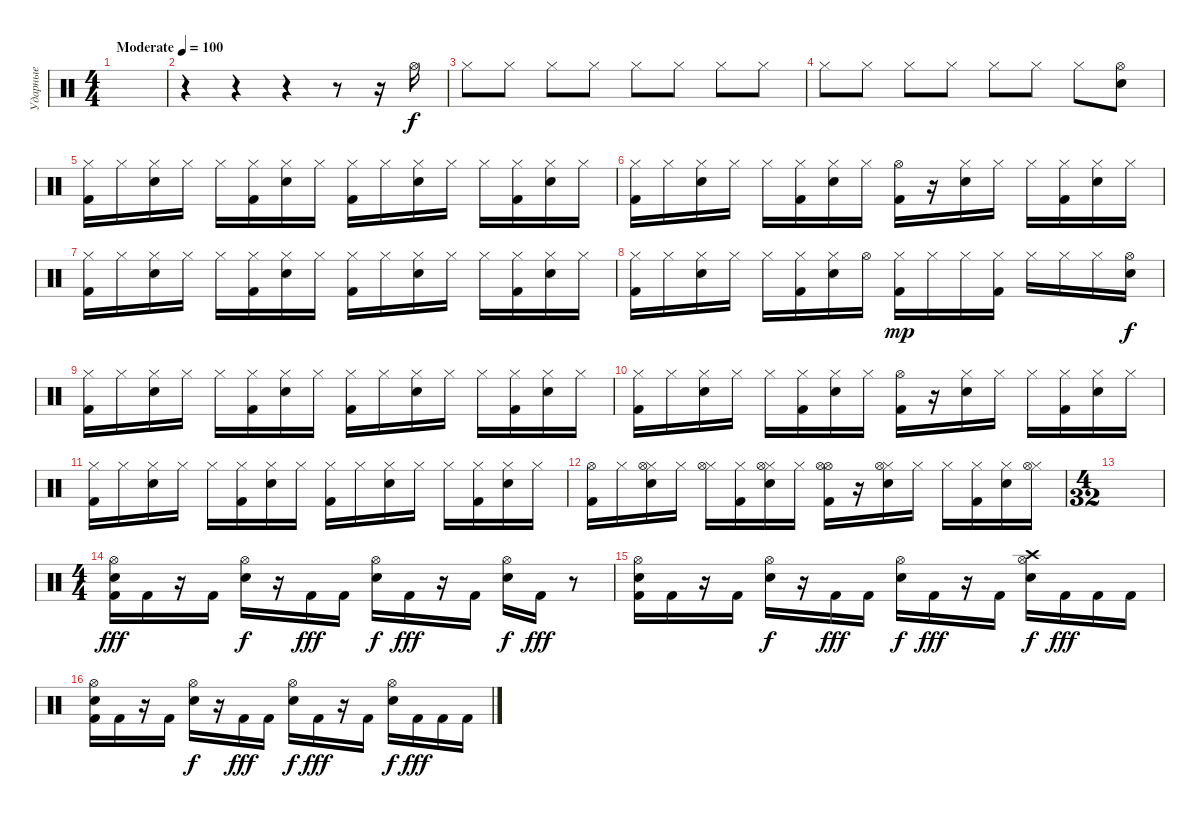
\track ("Ударные" "Ударные") {instrument percussion}
\staff {score}
\articulation defaults
\ts (4 4)
\tempo (100 "Moderate")
\clef neutral
\ks c
|
r.4 r.4 r.4 r.8 r.16 "Hi-Hat (open)".16 |
"Hi-Hat (closed)".8 "Hi-Hat (closed)".8 "Hi-Hat (closed)".8 "Hi-Hat (closed)".8 "Hi-Hat (closed)".8 "Hi-Hat (closed)".8 "Hi-Hat (closed)".8 "Hi-Hat (closed)".8 |
"Hi-Hat (closed)".8 "Hi-Hat (closed)".8 "Hi-Hat (closed)".8 "Hi-Hat (closed)".8 "Hi-Hat (closed)".8 "Hi-Hat (closed)".8 "Hi-Hat (closed)".8 ("Hi-Hat (open)" "Electric Snare (hit)").8{volume 11} |
("Hi-Hat (closed)" "Kick (hit) 2").16 "Hi-Hat (closed)".16 ("Hi-Hat (closed)" "Electric Snare (hit)").16 "Hi-Hat (closed)".16 "Hi-Hat (closed)".16 ("Hi-Hat (closed)" "Kick (hit) 2").16 ("Hi-Hat (closed)" "Electric Snare (hit)").16 "Hi-Hat (closed)".16 ("Hi-Hat (closed)" "Kick (hit) 2").16 "Hi-Hat (closed)".16 ("Hi-Hat (closed)" "Electric Snare (hit)").16 "Hi-Hat (closed)".16 "Hi-Hat (closed)".16 ("Hi-Hat (closed)" "Kick (hit) 2").16 ("Hi-Hat (closed)" "Electric Snare (hit)").16 "Hi-Hat (closed)".16 |
("Hi-Hat (closed)" "Kick (hit) 2").16 "Hi-Hat (closed)".16 ("Hi-Hat (closed)" "Electric Snare (hit)").16 "Hi-Hat (closed)".16 "Hi-Hat (closed)".16 ("Hi-Hat (closed)" "Kick (hit) 2").16 ("Hi-Hat (closed)" "Electric Snare (hit)").16 "Hi-Hat (closed)".16 ("Hi-Hat (open)" "Kick (hit) 2").16 r.16 ("Hi-Hat (closed)" "Electric Snare (hit)").16 "Hi-Hat (closed)".16 "Hi-Hat (closed)".16 ("Hi-Hat (closed)" "Kick (hit) 2").16 ("Hi-Hat (closed)" "Electric Snare (hit)").16 "Hi-Hat (closed)".16 |
("Hi-Hat (closed)" "Kick (hit) 2").16 "Hi-Hat (closed)".16 ("Hi-Hat (closed)" "Electric Snare (hit)").16 "Hi-Hat (closed)".16 "Hi-Hat (closed)".16 ("Hi-Hat (closed)" "Kick (hit) 2").16 ("Hi-Hat (closed)" "Electric Snare (hit)").16 "Hi-Hat (closed)".16 ("Hi-Hat (closed)" "Kick (hit) 2").16 "Hi-Hat (closed)".16 ("Hi-Hat (closed)" "Electric Snare (hit)").16 "Hi-Hat (closed)".16 "Hi-Hat (closed)".16 ("Hi-Hat (closed)" "Kick (hit) 2").16 ("Hi-Hat (closed)" "Electric Snare (hit)").16 "Hi-Hat (closed)".16 |
("Hi-Hat (closed)" "Kick (hit) 2").16 "Hi-Hat (closed)".16 ("Hi-Hat (closed)" "Electric Snare (hit)").16 "Hi-Hat (closed)".16 "Hi-Hat (closed)".16 ("Hi-Hat (closed)" "Kick (hit) 2").16 ("Hi-Hat (closed)" "Electric Snare (hit)").16 "Hi-Hat (open)".16 ("Hi-Hat (closed)" "Kick (hit) 2").16{dy mp} "Hi-Hat (closed)".16 "Hi-Hat (closed)".16 ("Hi-Hat (closed)" "Kick (hit) 2").16 "Hi-Hat (closed)".16 "Hi-Hat (closed)".16 "Hi-Hat (closed)".16 ("Hi-Hat (open)" "Electric Snare (hit)").16{dy f} |
("Hi-Hat (closed)" "Kick (hit) 2").16 "Hi-Hat (closed)".16 ("Hi-Hat (closed)" "Electric Snare (hit)").16 "Hi-Hat (closed)".16 "Hi-Hat (closed)".16 ("Hi-Hat (closed)" "Kick (hit) 2").16 ("Hi-Hat (closed)" "Electric Snare (hit)").16 "Hi-Hat (closed)".16 ("Hi-Hat (closed)" "Kick (hit) 2").16 "Hi-Hat (closed)".16 ("Hi-Hat (closed)" "Electric Snare (hit)").16 "Hi-Hat (closed)".16 "Hi-Hat (closed)".16 ("Hi-Hat (closed)" "Kick (hit) 2").16 ("Hi-Hat (closed)" "Electric Snare (hit)").16 "Hi-Hat (closed)".16 |
("Hi-Hat (closed)" "Kick (hit) 2").16 "Hi-Hat (closed)".16 ("Hi-Hat (closed)" "Electric Snare (hit)").16 "Hi-Hat (closed)".16 "Hi-Hat (closed)".16 ("Hi-Hat (closed)" "Kick (hit) 2").16 ("Hi-Hat (closed)" "Electric Snare (hit)").16 "Hi-Hat (closed)".16 ("Hi-Hat (open)" "Kick (hit) 2").16 r.16 ("Hi-Hat (closed)" "Electric Snare (hit)").16 "Hi-Hat (closed)".16 "Hi-Hat (closed)".16 ("Hi-Hat (closed)" "Kick (hit) 2").16 ("Hi-Hat (closed)" "Electric Snare (hit)").16 "Hi-Hat (closed)".16 |
("Hi-Hat (closed)" "Kick (hit) 2").16 "Hi-Hat (closed)".16 ("Hi-Hat (closed)" "Electric Snare (hit)").16 "Hi-Hat (closed)".16 "Hi-Hat (closed)".16 ("Hi-Hat (closed)" "Kick (hit) 2").16 ("Hi-Hat (closed)" "Electric Snare (hit)").16 "Hi-Hat (closed)".16 ("Hi-Hat (closed)" "Kick (hit) 2").16 "Hi-Hat (closed)".16 ("Hi-Hat (closed)" "Electric Snare (hit)").16 "Hi-Hat (closed)".16 "Hi-Hat (closed)".16 ("Hi-Hat (closed)" "Kick (hit) 2").16 ("Hi-Hat (closed)" "Electric Snare (hit)").16 "Hi-Hat (closed)".16 |
("Kick (hit) 2" "Hi-Hat (open)").16 "Hi-Hat (closed)".16 ("Hi-Hat (closed)" "Electric Snare (hit)" "Hi-Hat (open)").16 "Hi-Hat (closed)".16 ("Hi-Hat (closed)" "Hi-Hat (open)").16 ("Hi-Hat (closed)" "Kick (hit) 2").16 ("Hi-Hat (closed)" "Electric Snare (hit)" "Hi-Hat (open)").16 "Hi-Hat (closed)".16 ("Hi-Hat (open)" "Kick (hit) 2" "Hi-Hat (open)").16 r.16 ("Hi-Hat (closed)" "Electric Snare (hit)" "Hi-Hat (open)").16 "Hi-Hat (closed)".16 "Hi-Hat (closed)".16 ("Hi-Hat (closed)" "Kick (hit) 2").16 ("Hi-Hat (closed)" "Electric Snare (hit)").16 ("Hi-Hat (closed)" "Hi-Hat (open)").16 |
\ts (4 32)
|
\ts (4 4)
("Kick (hit) 2" "Hi-Hat (open)" "Electric Snare (hit)").16{dy fff} "Kick (hit) 2".16 r.16 "Kick (hit) 2".16 ("Electric Snare (hit)" "Hi-Hat (open)").16{dy f} r.16 "Kick (hit) 2".16{dy fff} "Kick (hit) 2".16 ("Electric Snare (hit)" "Hi-Hat (open)").16{dy f} "Kick (hit) 2".16{dy fff} r.16 "Kick (hit) 2".16 ("Electric Snare (hit)" "Hi-Hat (open)").16{dy f} "Kick (hit) 2".16{dy fff} r.8 |
("Kick (hit) 2" "Hi-Hat (open)" "Electric Snare (hit)").16 "Kick (hit) 2".16 r.16 "Kick (hit) 2".16 ("Electric Snare (hit)" "Hi-Hat (open)").16{dy f} r.16 "Kick (hit) 2".16{dy fff} "Kick (hit) 2".16 ("Electric Snare (hit)" "Hi-Hat (open)").16{dy f} "Kick (hit) 2".16{dy fff} r.16 "Kick (hit) 2".16 ("Electric Snare (hit)" "Hi-Hat (open)" "Crash high (hit)").16{dy f} "Kick (hit) 2".16{dy fff} "Kick (hit) 2".16 "Kick (hit) 2".16 |
("Kick (hit) 2" "Hi-Hat (open)" "Electric Snare (hit)").16 "Kick (hit) 2".16 r.16 "Kick (hit) 2".16 ("Electric Snare (hit)" "Hi-Hat (open)").16{dy f} r.16 "Kick (hit) 2".16{dy fff} "Kick (hit) 2".16 ("Electric Snare (hit)" "Hi-Hat (open)").16{dy f} "Kick (hit) 2".16{dy fff} r.16 "Kick (hit) 2".16 ("Electric Snare (hit)" "Hi-Hat (open)").16{dy f} "Kick (hit) 2".16{dy fff} "Kick (hit) 2".16 "Kick (hit) 2".16
